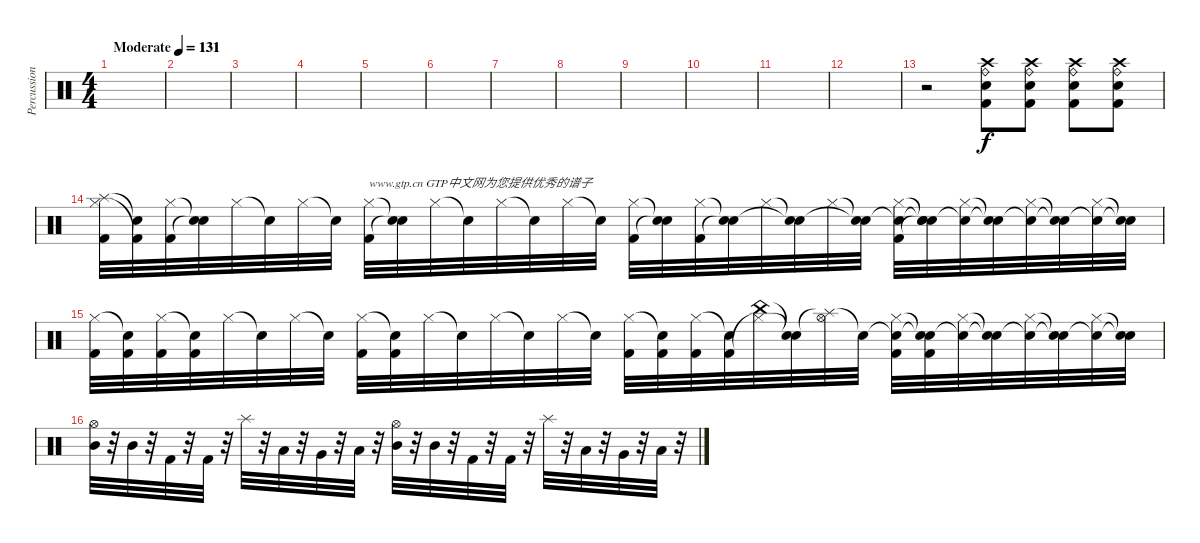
\track ("Percussion" "Percussion") {instrument percussion}
\staff {score}
\articulation defaults
\ts (4 4)
\tempo (131 "Moderate")
\clef neutral
\ks c
|
\tempo 131
|
|
|
|
|
|
|
|
|
|
|
r.2 ("Crash high (hit)" "Ride (bell)" "Electric Snare (hit)" "Kick (hit) 2").8 ("Crash high (hit)" "Ride (bell)" "Electric Snare (hit)" "Kick (hit) 2").8 ("Crash high (hit)" "Ride (bell)" "Electric Snare (hit)" "Kick (hit) 2").8 ("Crash high (hit)" "Ride (bell)" "Electric Snare (hit)" "Kick (hit) 2").8 |
("Splash (hit)" "Hi-Hat (closed)" "Kick (hit) 2").32 ("Snare (hit)"{t} "Kick (hit) 2"{t}).32 ("Hi-Hat (closed)" "Kick (hit) 2").32 ("Snare (hit)"{t} "Snare (hit)"{t}).32 "Hi-Hat (closed)".32 "Snare (hit)"{t}.32 "Hi-Hat (closed)".32 "Snare (hit)"{t}.32 ("Hi-Hat (closed)" "Kick (hit) 2").32{txt "www.gtp.cn GTP中文网为您提供优秀的谱子"} ("Snare (hit)"{t} "Snare (hit)"{t}).32 "Hi-Hat (closed)".32 "Snare (hit)"{t}.32 "Hi-Hat (closed)".32 "Snare (hit)"{t}.32 "Hi-Hat (closed)".32 "Snare (hit)"{t}.32 ("Hi-Hat (closed)" "Kick (hit) 2").32 ("Snare (hit)"{t} "Snare (hit)"{t}).32 ("Hi-Hat (closed)" "Kick (hit) 2").32 ("Snare (hit)"{t} "Snare (hit)"{t}).32 "Hi-Hat (closed)".32 ("Snare (hit)"{t} "Snare (hit)"{t}).32 "Hi-Hat (closed)".32 ("Snare (hit)"{t} "Snare (hit)"{t}).32 ("Snare (hit)"{t} "Hi-Hat (closed)" "Kick (hit) 2").32 ("Snare (hit)"{t} "Snare (hit)"{t} "Snare (hit)"{t}).32 ("Snare (hit)"{t} "Hi-Hat (closed)").32 ("Snare (hit)"{t} "Snare (hit)"{t}).32 ("Snare (hit)"{t} "Hi-Hat (closed)").32 ("Snare (hit)"{t} "Snare (hit)"{t}).32 ("Snare (hit)"{t} "Hi-Hat (closed)").32 ("Snare (hit)"{t} "Snare (hit)"{t}).32 |
("Hi-Hat (closed)" "Kick (hit) 2").32 ("Snare (hit)"{t} "Kick (hit) 2").32 ("Hi-Hat (closed)" "Kick (hit) 2").32 ("Snare (hit)"{t} "Kick (hit) 2").32 "Hi-Hat (closed)".32 "Snare (hit)"{t}.32 "Hi-Hat (closed)".32 "Snare (hit)"{t}.32 ("Hi-Hat (closed)" "Kick (hit) 2").32 ("Snare (hit)"{t} "Kick (hit) 2").32 "Hi-Hat (closed)".32 "Snare (hit)"{t}.32 "Hi-Hat (closed)".32 "Snare (hit)"{t}.32 "Hi-Hat (closed)".32 "Snare (hit)"{t}.32 ("Hi-Hat (closed)" "Kick (hit) 2").32 ("Snare (hit)"{t} "Kick (hit) 2").32 ("Hi-Hat (closed)" "Kick (hit) 2").32 ("Snare (hit)"{t} "Kick (hit) 2").32 ("China (hit)" "Hi-Hat (closed)"{t}).32 ("Snare (hit)"{t} "Snare (hit)"{t}).32 ("Splash (hit)"{t} "Hi-Hat (open)").32 "Snare (hit)"{t}.32 ("Snare (hit)"{t} "Hi-Hat (closed)" "Kick (hit) 2").32 ("Snare (hit)"{t} "Snare (hit)"{t} "Kick (hit) 2").32 ("Snare (hit)"{t} "Hi-Hat (closed)").32 ("Snare (hit)"{t} "Snare (hit)"{t}).32 ("Snare (hit)"{t} "Hi-Hat (closed)").32 ("Snare (hit)"{t} "Snare (hit)"{t}).32 ("Snare (hit)"{t} "Hi-Hat (closed)").32 ("Snare (hit)"{t} "Snare (hit)"{t}).32 |
("Hi-Hat (open)" "Mid Tom (hit)").32 r.32 "Mid Tom (hit)".32 r.32 "Kick (hit) 2".32 r.32 "Kick (hit) 2".32 r.32 "Splash (hit)".32 r.32 "Low Tom (hit)".32 r.32 "Very Low Tom (hit)".32 r.32 "Low Floor Tom (hit)".32 r.32 ("Hi-Hat (open)" "Mid Tom (hit)").32 r.32 "Mid Tom (hit)".32 r.32 "Kick (hit) 2".32 r.32 "Kick (hit) 2".32 r.32 "Splash (hit)".32 r.32 "Low Tom (hit)".32 r.32 "Very Low Tom (hit)".32 r.32 "Low Floor Tom (hit)".32 r.32
